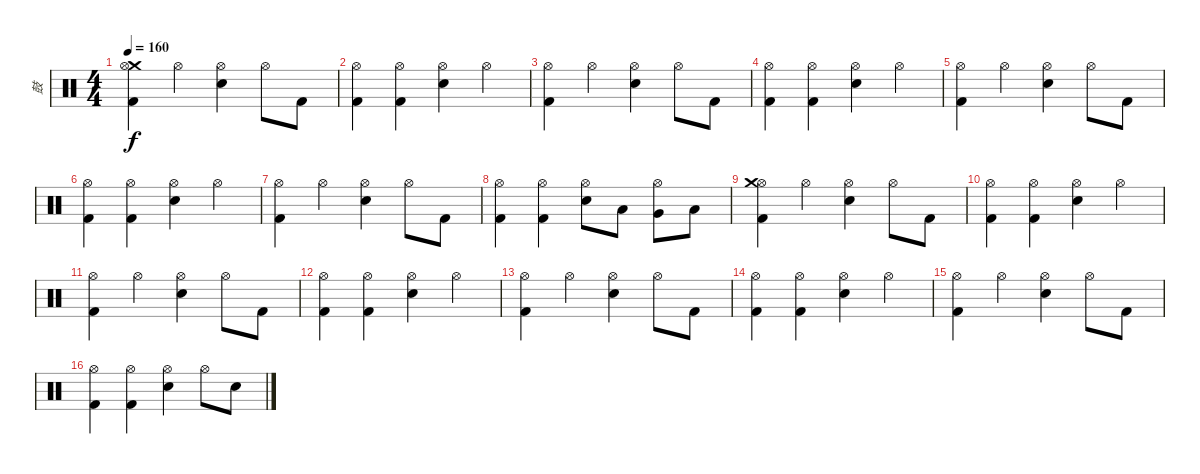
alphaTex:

\track ("鼓" "鼓") {instrument percussion}
\staff {score}
\articulation defaults
\ts (4 4)
\tempo 160
\clef neutral
\ks c
("Crash medium (hit)" "Hi-Hat (open)" "Kick (hit) 2").4{dy f} "Hi-Hat (open)".4 ("Hi-Hat (open)" "Electric Snare (hit)").4 "Hi-Hat (open)".8 "Kick (hit) 2".8 |
("Hi-Hat (open)" "Kick (hit) 2").4 ("Hi-Hat (open)" "Kick (hit) 2").4 ("Hi-Hat (open)" "Electric Snare (hit)").4 "Hi-Hat (open)".4 |
("Hi-Hat (open)" "Kick (hit) 2").4 "Hi-Hat (open)".4 ("Hi-Hat (open)" "Electric Snare (hit)").4 "Hi-Hat (open)".8 "Kick (hit) 2".8 |
("Hi-Hat (open)" "Kick (hit) 2").4 ("Hi-Hat (open)" "Kick (hit) 2").4 ("Hi-Hat (open)" "Electric Snare (hit)").4 "Hi-Hat (open)".4 |
("Hi-Hat (open)" "Kick (hit) 2").4 "Hi-Hat (open)".4 ("Hi-Hat (open)" "Electric Snare (hit)").4 "Hi-Hat (open)".8 "Kick (hit) 2".8 |
("Hi-Hat (open)" "Kick (hit) 2").4 ("Hi-Hat (open)" "Kick (hit) 2").4 ("Hi-Hat (open)" "Electric Snare (hit)").4 "Hi-Hat (open)".4 |
("Hi-Hat (open)" "Kick (hit) 2").4 "Hi-Hat (open)".4 ("Hi-Hat (open)" "Electric Snare (hit)").4 "Hi-Hat (open)".8 "Kick (hit) 2".8 |
("Hi-Hat (open)" "Kick (hit) 2").4 ("Hi-Hat (open)" "Kick (hit) 2").4 ("Hi-Hat (open)" "Electric Snare (hit)").8 "Low Tom (hit)".8 ("Hi-Hat (open)" "Very Low Tom (hit)").8 "Low Floor Tom (hit)".8 |
("Hi-Hat (open)" "Crash medium (hit)" "Kick (hit) 2").4 "Hi-Hat (open)".4 ("Hi-Hat (open)" "Electric Snare (hit)").4 "Hi-Hat (open)".8 "Kick (hit) 2".8 |
("Hi-Hat (open)" "Kick (hit) 2").4 ("Hi-Hat (open)" "Kick (hit) 2").4 ("Hi-Hat (open)" "Electric Snare (hit)").4 "Hi-Hat (open)".4 |
("Hi-Hat (open)" "Kick (hit) 2").4 "Hi-Hat (open)".4 ("Hi-Hat (open)" "Electric Snare (hit)").4 "Hi-Hat (open)".8 "Kick (hit) 2".8 |
("Hi-Hat (open)" "Kick (hit) 2").4 ("Hi-Hat (open)" "Kick (hit) 2").4 ("Hi-Hat (open)" "Electric Snare (hit)").4 "Hi-Hat (open)".4 |
("Hi-Hat (open)" "Kick (hit) 2").4 "Hi-Hat (open)".4 ("Hi-Hat (open)" "Electric Snare (hit)").4 "Hi-Hat (open)".8 "Kick (hit) 2".8 |
("Hi-Hat (open)" "Kick (hit) 2").4 ("Hi-Hat (open)" "Kick (hit) 2").4 ("Hi-Hat (open)" "Electric Snare (hit)").4 "Hi-Hat (open)".4 |
("Hi-Hat (open)" "Kick (hit) 2").4 "Hi-Hat (open)".4 ("Hi-Hat (open)" "Electric Snare (hit)").4 "Hi-Hat (open)".8 "Kick (hit) 2".8 |
("Hi-Hat (open)" "Kick (hit) 2").4 ("Hi-Hat (open)" "Kick (hit) 2").4 ("Hi-Hat (open)" "Electric Snare (hit)").4 "Hi-Hat (open)".8 "Electric Snare (hit)".8
